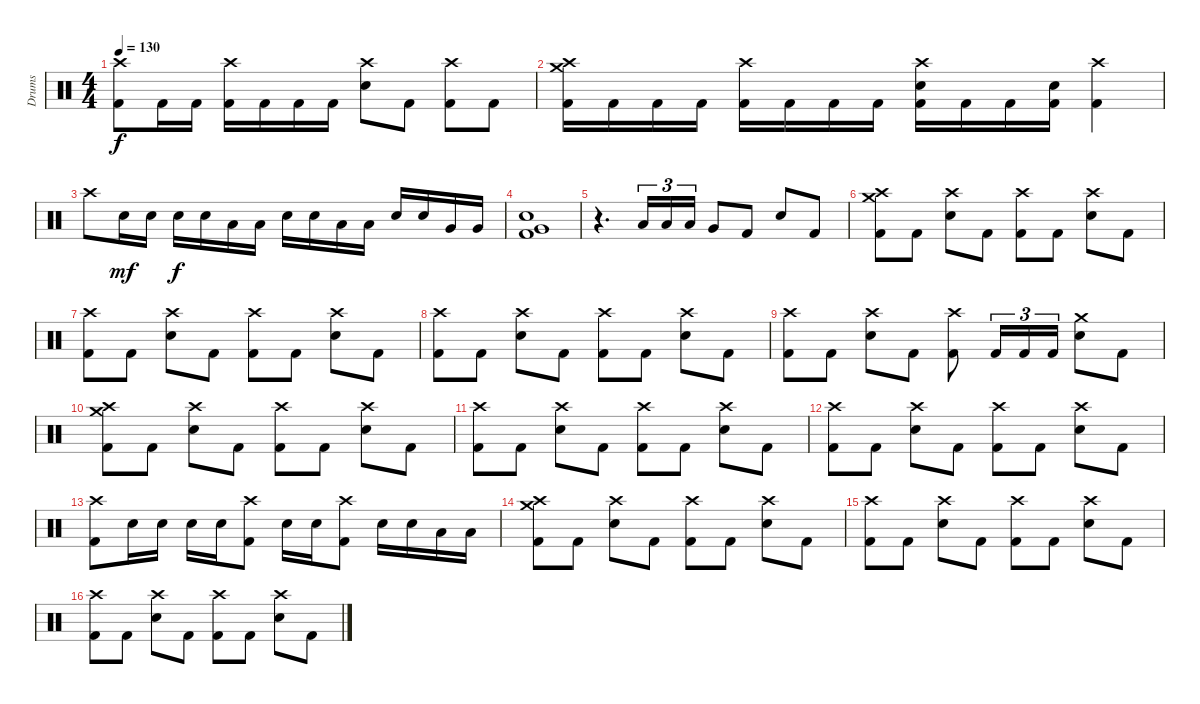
\track ("Drums" "Drums") {instrument percussion}
\staff {score}
\articulation defaults
\ts (4 4)
\tempo 130
\clef neutral
\ks c
("Crash high (hit)" "Kick (hit) 2").8{dy f} "Kick (hit) 2".16 "Kick (hit) 2".16 ("Crash high (hit)" "Kick (hit) 2").16 "Kick (hit) 2".16 "Kick (hit) 2".16 "Kick (hit) 2".16 ("Crash high (hit)" "Electric Snare (hit)").8 "Kick (hit) 2".8 ("Crash high (hit)" "Kick (hit) 2").8 "Kick (hit) 2".8 |
("Crash high (hit)" "Crash medium (hit)" "Kick (hit) 2").16 "Kick (hit) 2".16 "Kick (hit) 2".16 "Kick (hit) 2".16 ("Crash high (hit)" "Kick (hit) 2").16 "Kick (hit) 2".16 "Kick (hit) 2".16 "Kick (hit) 2".16 ("Crash high (hit)" "Electric Snare (hit)" "Kick (hit) 2").16 "Kick (hit) 2".16 "Kick (hit) 2".16 ("Electric Snare (hit)" "Kick (hit) 2").16 ("Crash high (hit)" "Kick (hit) 2").4 |
"Crash high (hit)".8 "Electric Snare (hit)".16{dy mf} "Electric Snare (hit)".16 "Electric Snare (hit)".16{dy f} "Electric Snare (hit)".16 "Low Tom (hit)".16 "Low Tom (hit)".16 "Electric Snare (hit)".16 "Electric Snare (hit)".16 "Low Tom (hit)".16 "Low Tom (hit)".16 "Electric Snare (hit)".16 "Electric Snare (hit)".16 "Very Low Tom (hit)".16 "Very Low Tom (hit)".16 |
("Very Low Tom (hit)" "Electric Snare (hit)" "Kick (hit) 2").1 |
r.4{d} "Low Tom (hit)".16{tu (3 2)} "Low Tom (hit)".16{tu (3 2)} "Low Tom (hit)".16{tu (3 2)} "Very Low Tom (hit)".8 "Kick (hit) 2".8 "Electric Snare (hit)".8 "Kick (hit) 2".8 |
("Crash high (hit)" "Crash medium (hit)" "Kick (hit) 2").8 "Kick (hit) 2".8 ("Crash high (hit)" "Electric Snare (hit)").8 "Kick (hit) 2".8 ("Crash high (hit)" "Kick (hit) 2").8 "Kick (hit) 2".8 ("Crash high (hit)" "Electric Snare (hit)").8 "Kick (hit) 2".8 |
("Crash high (hit)" "Kick (hit) 2").8 "Kick (hit) 2".8 ("Crash high (hit)" "Electric Snare (hit)").8 "Kick (hit) 2".8 ("Crash high (hit)" "Kick (hit) 2").8 "Kick (hit) 2".8 ("Crash high (hit)" "Electric Snare (hit)").8 "Kick (hit) 2".8 |
("Crash high (hit)" "Kick (hit) 2").8 "Kick (hit) 2".8 ("Crash high (hit)" "Electric Snare (hit)").8 "Kick (hit) 2".8 ("Crash high (hit)" "Kick (hit) 2").8 "Kick (hit) 2".8 ("Crash high (hit)" "Electric Snare (hit)").8 "Kick (hit) 2".8 |
("Crash high (hit)" "Kick (hit) 2").8 "Kick (hit) 2".8 ("Crash high (hit)" "Electric Snare (hit)").8 "Kick (hit) 2".8 ("Crash high (hit)" "Kick (hit) 2").8 "Kick (hit) 2".16{tu (3 2)} "Kick (hit) 2".16{tu (3 2)} "Kick (hit) 2".16{tu (3 2)} ("Crash medium (hit)" "Electric Snare (hit)").8 "Kick (hit) 2".8 |
("Crash high (hit)" "Crash medium (hit)" "Kick (hit) 2").8 "Kick (hit) 2".8 ("Crash high (hit)" "Electric Snare (hit)").8 "Kick (hit) 2".8 ("Crash high (hit)" "Kick (hit) 2").8 "Kick (hit) 2".8 ("Crash high (hit)" "Electric Snare (hit)").8 "Kick (hit) 2".8 |
("Crash high (hit)" "Kick (hit) 2").8 "Kick (hit) 2".8 ("Crash high (hit)" "Electric Snare (hit)").8 "Kick (hit) 2".8 ("Crash high (hit)" "Kick (hit) 2").8 "Kick (hit) 2".8 ("Crash high (hit)" "Electric Snare (hit)").8 "Kick (hit) 2".8 |
("Crash high (hit)" "Kick (hit) 2").8 "Kick (hit) 2".8 ("Crash high (hit)" "Electric Snare (hit)").8 "Kick (hit) 2".8 ("Crash high (hit)" "Kick (hit) 2").8 "Kick (hit) 2".8 ("Crash high (hit)" "Electric Snare (hit)").8 "Kick (hit) 2".8 |
("Crash high (hit)" "Kick (hit) 2").8 "Electric Snare (hit)".16 "Electric Snare (hit)".16 "Electric Snare (hit)".16 "Electric Snare (hit)".16 ("Crash high (hit)" "Kick (hit) 2").8 "Electric Snare (hit)".16 "Electric Snare (hit)".16 ("Crash high (hit)" "Kick (hit) 2").8 "Electric Snare (hit)".16 "Electric Snare (hit)".16 "Low Tom (hit)".16 "Low Tom (hit)".16 |
("Crash high (hit)" "Crash medium (hit)" "Kick (hit) 2").8 "Kick (hit) 2".8 ("Crash high (hit)" "Electric Snare (hit)").8 "Kick (hit) 2".8 ("Crash high (hit)" "Kick (hit) 2").8 "Kick (hit) 2".8 ("Crash high (hit)" "Electric Snare (hit)").8 "Kick (hit) 2".8 |
("Crash high (hit)" "Kick (hit) 2").8 "Kick (hit) 2".8 ("Crash high (hit)" "Electric Snare (hit)").8 "Kick (hit) 2".8 ("Crash high (hit)" "Kick (hit) 2").8 "Kick (hit) 2".8 ("Crash high (hit)" "Electric Snare (hit)").8 "Kick (hit) 2".8 |
("Crash high (hit)" "Kick (hit) 2").8 "Kick (hit) 2".8 ("Crash high (hit)" "Electric Snare (hit)").8 "Kick (hit) 2".8 ("Crash high (hit)" "Kick (hit) 2").8 "Kick (hit) 2".8 ("Crash high (hit)" "Electric Snare (hit)").8 "Kick (hit) 2".8
